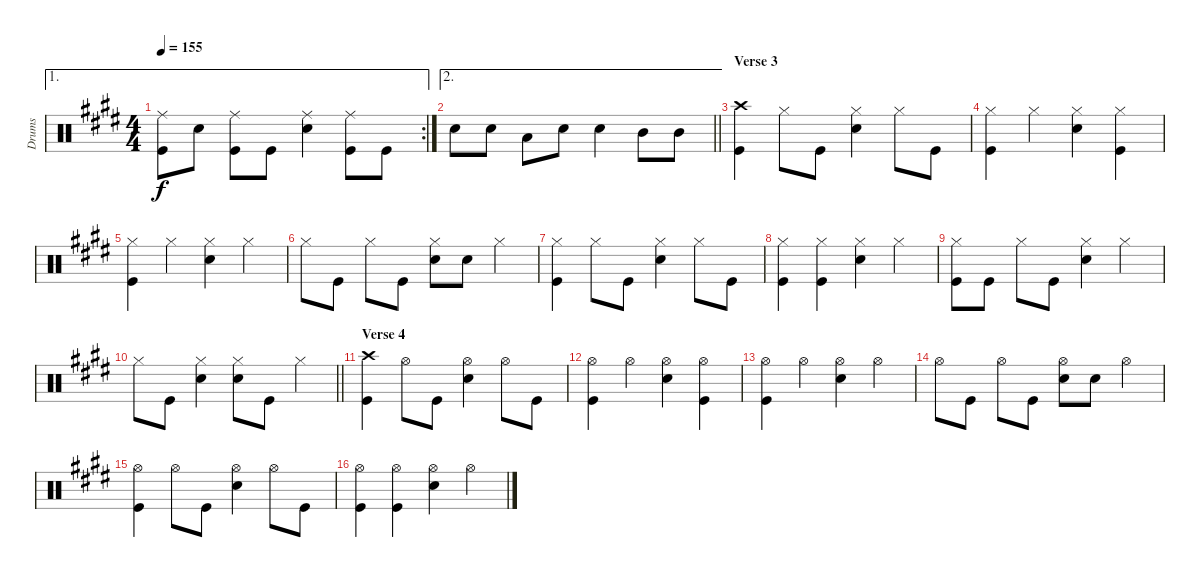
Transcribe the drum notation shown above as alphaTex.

\track ("Drums" "Drums") {instrument percussion}
\staff {score}
\articulation defaults
\ae 1
\rc 2
\ts (4 4)
\tempo 155
\clef neutral
\ks e
("Ride (middle)" "Kick (hit)").8{dy f} "Snare (hit) 2".8 ("Ride (middle)" "Kick (hit)").8 "Kick (hit)".8 ("Ride (middle)" "Snare (hit) 2").4 ("Ride (middle)" "Kick (hit)").8 "Kick (hit)".8 |
\ae 2
\barLineRight lightlight "Snare (hit) 2".8 "Snare (hit) 2".8 "Low Tom (hit)".8 "Snare (hit) 2".8 "Snare (hit) 2".4 "Mid Tom (hit)".8 "Mid Tom (hit)".8
|
\section ("" "Verse 3")
("Crash high (hit)" "Kick (hit)").4 "Hi-Hat (closed)".8 "Kick (hit)".8 ("Hi-Hat (closed)" "Snare (hit) 2").4 "Hi-Hat (closed)".8 "Kick (hit)".8 |
("Hi-Hat (closed)" "Kick (hit)").4 "Hi-Hat (closed)".4 ("Hi-Hat (closed)" "Snare (hit) 2").4 ("Hi-Hat (closed)" "Kick (hit)").4 |
("Hi-Hat (closed)" "Kick (hit)").4 "Hi-Hat (closed)".4 ("Hi-Hat (closed)" "Snare (hit) 2").4 "Hi-Hat (closed)".4 |
"Hi-Hat (closed)".8 "Kick (hit)".8 "Hi-Hat (closed)".8 "Kick (hit)".8 ("Hi-Hat (closed)" "Snare (hit) 2").8 "Snare (hit) 2".8 "Hi-Hat (closed)".4 |
("Hi-Hat (closed)" "Kick (hit)").4 "Hi-Hat (closed)".8 "Kick (hit)".8 ("Hi-Hat (closed)" "Snare (hit) 2").4 "Hi-Hat (closed)".8 "Kick (hit)".8 |
("Hi-Hat (closed)" "Kick (hit)").4 ("Hi-Hat (closed)" "Kick (hit)").4 ("Hi-Hat (closed)" "Snare (hit) 2").4 "Hi-Hat (closed)".4 |
("Hi-Hat (closed)" "Kick (hit)").8 "Kick (hit)".8 "Hi-Hat (closed)".8 "Kick (hit)".8 ("Hi-Hat (closed)" "Snare (hit) 2").4 "Hi-Hat (closed)".4 |
\barLineRight lightlight "Hi-Hat (closed)".8 "Kick (hit)".8
("Hi-Hat (closed)" "Snare (hit) 2").4 ("Hi-Hat (closed)" "Snare (hit) 2").8 "Kick (hit)".8 "Hi-Hat (closed)".4 |
\section ("" "Verse 4")
("Crash high (hit)" "Kick (hit)").4 "Hi-Hat (open)".8 "Kick (hit)".8 ("Hi-Hat (open)" "Snare (hit) 2").4 "Hi-Hat (open)".8 "Kick (hit)".8 |
("Hi-Hat (open)" "Kick (hit)").4 "Hi-Hat (open)".4 ("Hi-Hat (open)" "Snare (hit) 2").4 ("Hi-Hat (open)" "Kick (hit)").4 |
("Hi-Hat (open)" "Kick (hit)").4 "Hi-Hat (open)".4 ("Hi-Hat (open)" "Snare (hit) 2").4 "Hi-Hat (open)".4 |
"Hi-Hat (open)".8 "Kick (hit)".8 "Hi-Hat (open)".8 "Kick (hit)".8 ("Hi-Hat (open)" "Snare (hit) 2").8 "Snare (hit) 2".8 "Hi-Hat (open)".4 |
("Hi-Hat (open)" "Kick (hit)").4 "Hi-Hat (open)".8 "Kick (hit)".8 ("Hi-Hat (open)" "Snare (hit) 2").4 "Hi-Hat (open)".8 "Kick (hit)".8 |
("Hi-Hat (open)" "Kick (hit)").4 ("Hi-Hat (open)" "Kick (hit)").4 ("Hi-Hat (open)" "Snare (hit) 2").4 "Hi-Hat (open)".4
